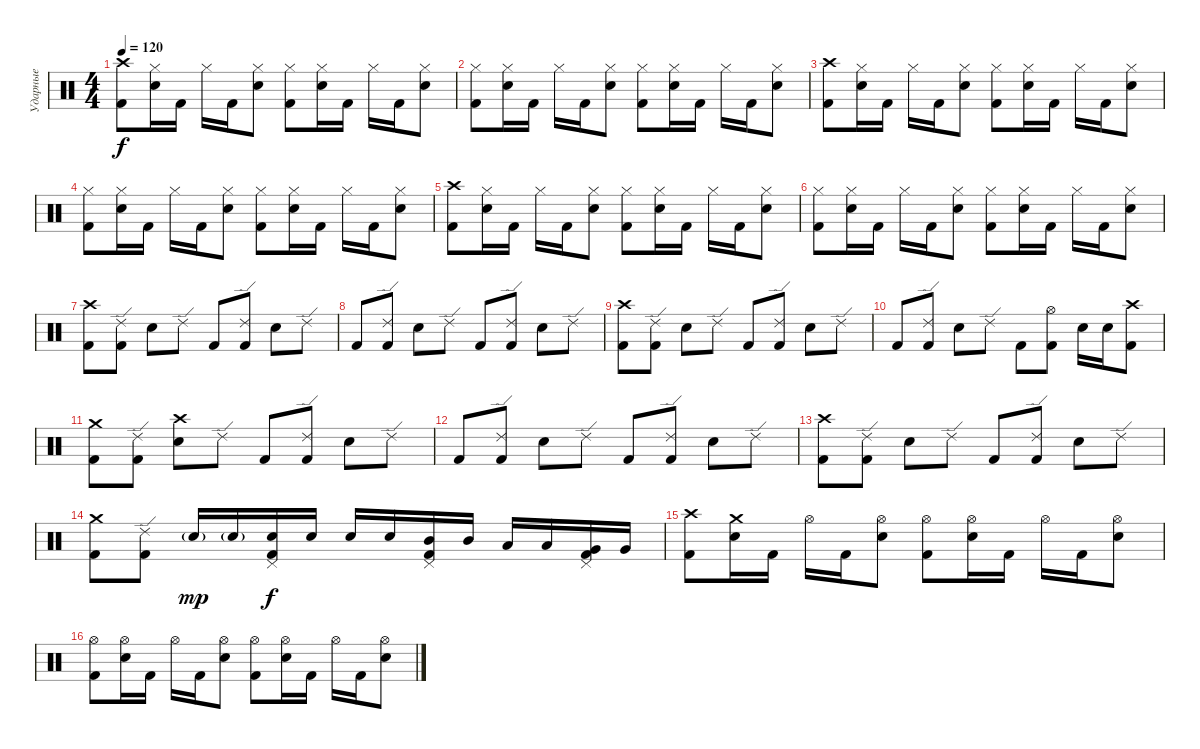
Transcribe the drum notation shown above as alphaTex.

\track ("Ударные" "Ударные") {instrument percussion}
\staff {score}
\articulation defaults
\ts (4 4)
\tempo 120
\clef neutral
\ks c
("Kick (hit) 2" "Crash high (hit)").8{dy f} ("Electric Snare (hit)" "Hi-Hat (closed)").16 "Kick (hit) 2".16 "Hi-Hat (closed)".16 "Kick (hit) 2".16 ("Electric Snare (hit)" "Hi-Hat (closed)").8 ("Kick (hit) 2" "Hi-Hat (closed)").8 ("Electric Snare (hit)" "Hi-Hat (closed)").16 "Kick (hit) 2".16 "Hi-Hat (closed)".16 "Kick (hit) 2".16 ("Electric Snare (hit)" "Hi-Hat (closed)").8 |
("Kick (hit) 2" "Hi-Hat (closed)").8 ("Electric Snare (hit)" "Hi-Hat (closed)").16 "Kick (hit) 2".16 "Hi-Hat (closed)".16 "Kick (hit) 2".16 ("Electric Snare (hit)" "Hi-Hat (closed)").8 ("Kick (hit) 2" "Hi-Hat (closed)").8 ("Electric Snare (hit)" "Hi-Hat (closed)").16 "Kick (hit) 2".16 "Hi-Hat (closed)".16 "Kick (hit) 2".16 ("Electric Snare (hit)" "Hi-Hat (closed)").8 |
("Kick (hit) 2" "Crash high (hit)").8 ("Electric Snare (hit)" "Hi-Hat (closed)").16 "Kick (hit) 2".16 "Hi-Hat (closed)".16 "Kick (hit) 2".16 ("Electric Snare (hit)" "Hi-Hat (closed)").8 ("Kick (hit) 2" "Hi-Hat (closed)").8 ("Electric Snare (hit)" "Hi-Hat (closed)").16 "Kick (hit) 2".16 "Hi-Hat (closed)".16 "Kick (hit) 2".16 ("Electric Snare (hit)" "Hi-Hat (closed)").8 |
("Kick (hit) 2" "Hi-Hat (closed)").8 ("Electric Snare (hit)" "Hi-Hat (closed)").16 "Kick (hit) 2".16 "Hi-Hat (closed)".16 "Kick (hit) 2".16 ("Electric Snare (hit)" "Hi-Hat (closed)").8 ("Kick (hit) 2" "Hi-Hat (closed)").8 ("Electric Snare (hit)" "Hi-Hat (closed)").16 "Kick (hit) 2".16 "Hi-Hat (closed)".16 "Kick (hit) 2".16 ("Electric Snare (hit)" "Hi-Hat (closed)").8 |
("Kick (hit) 2" "Crash high (hit)").8 ("Electric Snare (hit)" "Hi-Hat (closed)").16 "Kick (hit) 2".16 "Hi-Hat (closed)".16 "Kick (hit) 2".16 ("Electric Snare (hit)" "Hi-Hat (closed)").8 ("Kick (hit) 2" "Hi-Hat (closed)").8 ("Electric Snare (hit)" "Hi-Hat (closed)").16 "Kick (hit) 2".16 "Hi-Hat (closed)".16 "Kick (hit) 2".16 ("Electric Snare (hit)" "Hi-Hat (closed)").8 |
("Kick (hit) 2" "Hi-Hat (closed)").8 ("Electric Snare (hit)" "Hi-Hat (closed)").16 "Kick (hit) 2".16 "Hi-Hat (closed)".16 "Kick (hit) 2".16 ("Electric Snare (hit)" "Hi-Hat (closed)").8 ("Kick (hit) 2" "Hi-Hat (closed)").8 ("Electric Snare (hit)" "Hi-Hat (closed)").16 "Kick (hit) 2".16 "Hi-Hat (closed)".16 "Kick (hit) 2".16 ("Electric Snare (hit)" "Hi-Hat (closed)").8 |
("Kick (hit) 2" "Crash high (hit)").8 ("Kick (hit) 2" "Ride (edge) 2").8 "Electric Snare (hit)".8 "Ride (edge) 2".8 "Kick (hit) 2".8 ("Kick (hit) 2" "Ride (edge) 2").8 "Electric Snare (hit)".8 "Ride (edge) 2".8 |
"Kick (hit) 2".8 ("Kick (hit) 2" "Ride (edge) 2").8 "Electric Snare (hit)".8 "Ride (edge) 2".8 "Kick (hit) 2".8 ("Kick (hit) 2" "Ride (edge) 2").8 "Electric Snare (hit)".8 "Ride (edge) 2".8 |
("Kick (hit) 2" "Crash high (hit)").8 ("Kick (hit) 2" "Ride (edge) 2").8 "Electric Snare (hit)".8 "Ride (edge) 2".8 "Kick (hit) 2".8 ("Kick (hit) 2" "Ride (edge) 2").8 "Electric Snare (hit)".8 "Ride (edge) 2".8 |
"Kick (hit) 2".8 ("Kick (hit) 2" "Ride (edge) 2").8 "Electric Snare (hit)".8 "Ride (edge) 2".8 "Kick (hit) 2".8 ("Kick (hit) 2" "Hi-Hat (open)").8 "Electric Snare (hit)".16 "Electric Snare (hit)".16 ("Kick (hit) 2" "Crash high (hit)").8 |
("Kick (hit) 2" "Crash medium (hit)").8 ("Kick (hit) 2" "Ride (edge) 2").8 ("Electric Snare (hit)" "Crash high (hit)").8 "Ride (edge) 2".8 "Kick (hit) 2".8 ("Kick (hit) 2" "Ride (edge) 2").8 "Electric Snare (hit)".8 "Ride (edge) 2".8 |
"Kick (hit) 2".8 ("Kick (hit) 2" "Ride (edge) 2").8 "Electric Snare (hit)".8 "Ride (edge) 2".8 "Kick (hit) 2".8 ("Kick (hit) 2" "Ride (edge) 2").8 "Electric Snare (hit)".8 "Ride (edge) 2".8 |
("Kick (hit) 2" "Crash high (hit)").8 ("Kick (hit) 2" "Ride (edge) 2").8 "Electric Snare (hit)".8 "Ride (edge) 2".8 "Kick (hit) 2".8 ("Kick (hit) 2" "Ride (edge) 2").8 "Electric Snare (hit)".8 "Ride (edge) 2".8 |
("Kick (hit) 2" "Crash medium (hit)").8 ("Kick (hit) 2" "Ride (edge) 2").8 "Electric Snare (hit)"{g}.16{dy mp} "Electric Snare (hit)"{g}.16 ("Electric Snare (hit)" "Kick (hit) 2" "Pedal Hi-Hat (hit)").16{dy f} "Electric Snare (hit)".16 "Electric Snare (hit)".16 "Electric Snare (hit)".16 ("Mid Tom (hit)" "Kick (hit) 2" "Pedal Hi-Hat (hit)").16 "Mid Tom (hit)".16 "Low Tom (hit)".16 "Low Tom (hit)".16 ("Very Low Tom (hit)" "Kick (hit) 2" "Pedal Hi-Hat (hit)").16 "Very Low Tom (hit)".16 |
("Kick (hit) 2" "Crash high (hit)").8 ("Electric Snare (hit)" "Crash medium (hit)").16 "Kick (hit) 2".16 "Hi-Hat (open)".16 "Kick (hit) 2".16 ("Electric Snare (hit)" "Hi-Hat (open)").8 ("Kick (hit) 2" "Hi-Hat (open)").8 ("Electric Snare (hit)" "Hi-Hat (open)").16 "Kick (hit) 2".16 "Hi-Hat (open)".16 "Kick (hit) 2".16 ("Electric Snare (hit)" "Hi-Hat (open)").8 |
("Kick (hit) 2" "Hi-Hat (open)").8 ("Electric Snare (hit)" "Hi-Hat (open)").16 "Kick (hit) 2".16 "Hi-Hat (open)".16 "Kick (hit) 2".16 ("Electric Snare (hit)" "Hi-Hat (open)").8 ("Kick (hit) 2" "Hi-Hat (open)").8 ("Electric Snare (hit)" "Hi-Hat (open)").16 "Kick (hit) 2".16 "Hi-Hat (open)".16 "Kick (hit) 2".16 ("Electric Snare (hit)" "Hi-Hat (open)").8
